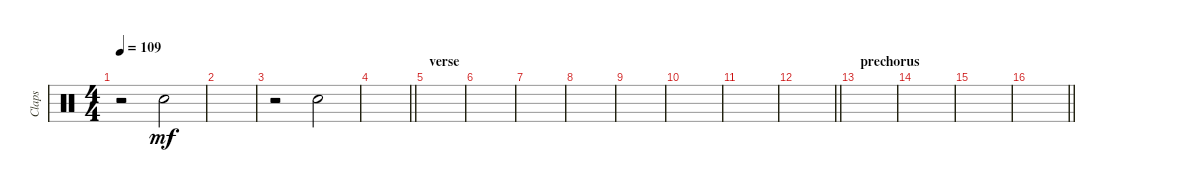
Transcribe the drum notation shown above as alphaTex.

\track ("Claps" "Claps") {instrument percussion}
\staff {score}
\articulation defaults
\ts (4 4)
\tempo 109
\clef neutral
\ks c
r.2{dy mf} "Hand Clap (hit)".2 |
|
r.2 "Hand Clap (hit)".2 |
\barLineRight lightlight
|
\section ("" "verse")
|
|
|
|
|
|
|
\barLineRight lightlight
|
\section ("" "prechorus")
|
|
|
\barLineRight lightlight
